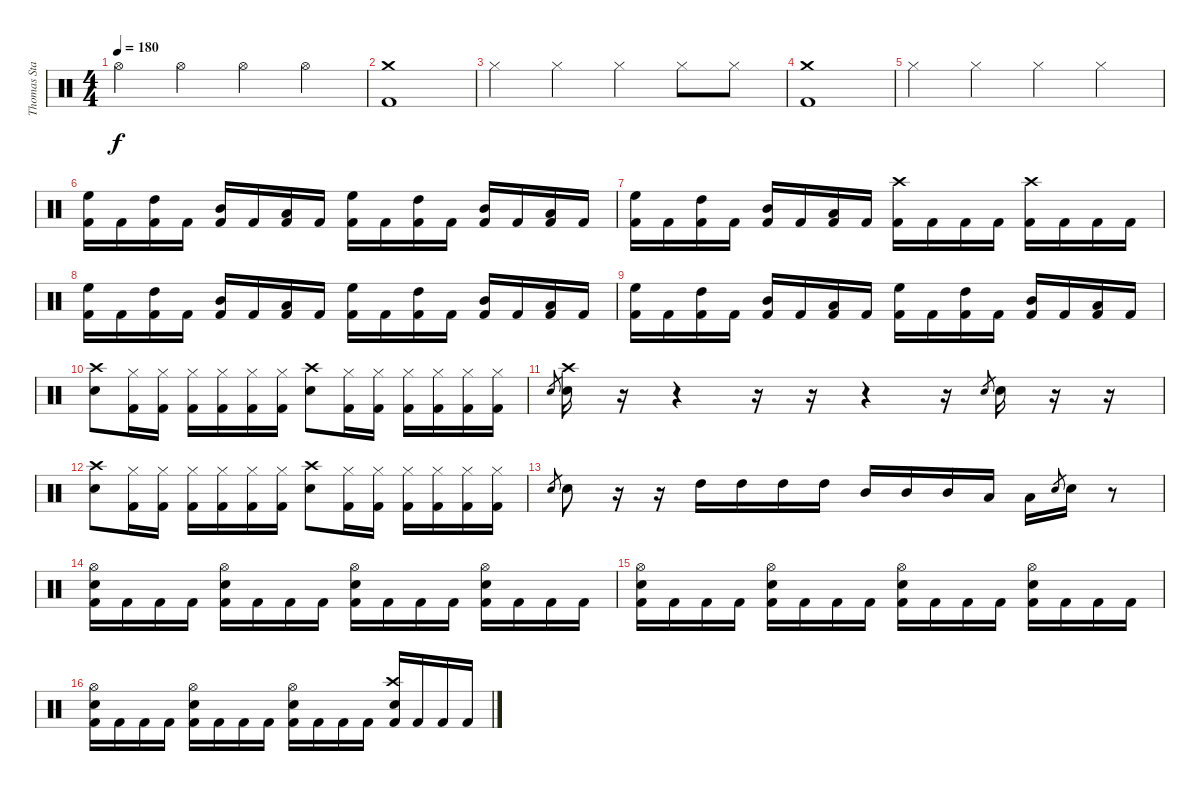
\track ("Thomas Stauch" "Thomas Sta") {instrument percussion}
\staff {score}
\articulation defaults
\ts (4 4)
\tempo 180
\clef neutral
\ks c "Hi-Hat (open)".4{dy f} "Hi-Hat (open)".4 "Hi-Hat (open)".4 "Hi-Hat (open)".4
|
("Crash medium (hit)" "Kick (hit) 2").1 |
"Hi-Hat (closed)".4 "Hi-Hat (closed)".4 "Hi-Hat (closed)".4 "Hi-Hat (closed)".8 "Hi-Hat (closed)".8 |
("Crash medium (hit)" "Kick (hit) 2").1 |
"Hi-Hat (closed)".4 "Hi-Hat (closed)".4 "Hi-Hat (closed)".4 "Hi-Hat (closed)".4 |
("High Floor Tom (hit)" "Kick (hit) 2").16 "Kick (hit) 2".16 ("High Tom (hit)" "Kick (hit) 2").16 "Kick (hit) 2".16 ("Mid Tom (hit)" "Kick (hit) 2").16 "Kick (hit) 2".16 ("Low Tom (hit)" "Kick (hit) 2").16 "Kick (hit) 2".16 ("High Floor Tom (hit)" "Kick (hit) 2").16 "Kick (hit) 2".16 ("High Tom (hit)" "Kick (hit) 2").16 "Kick (hit) 2".16 ("Mid Tom (hit)" "Kick (hit) 2").16 "Kick (hit) 2".16 ("Low Tom (hit)" "Kick (hit) 2").16 "Kick (hit) 2".16 |
("High Floor Tom (hit)" "Kick (hit) 2").16 "Kick (hit) 2".16 ("High Tom (hit)" "Kick (hit) 2").16 "Kick (hit) 2".16 ("Mid Tom (hit)" "Kick (hit) 2").16 "Kick (hit) 2".16 ("Low Tom (hit)" "Kick (hit) 2").16 "Kick (hit) 2".16 ("Crash high (hit)" "Kick (hit) 2").16 "Kick (hit) 2".16 "Kick (hit) 2".16 "Kick (hit) 2".16 ("Crash high (hit)" "Kick (hit) 2").16 "Kick (hit) 2".16 "Kick (hit) 2".16 "Kick (hit) 2".16 |
("High Floor Tom (hit)" "Kick (hit) 2").16 "Kick (hit) 2".16 ("High Tom (hit)" "Kick (hit) 2").16 "Kick (hit) 2".16 ("Mid Tom (hit)" "Kick (hit) 2").16 "Kick (hit) 2".16 ("Low Tom (hit)" "Kick (hit) 2").16 "Kick (hit) 2".16 ("High Floor Tom (hit)" "Kick (hit) 2").16 "Kick (hit) 2".16 ("High Tom (hit)" "Kick (hit) 2").16 "Kick (hit) 2".16 ("Mid Tom (hit)" "Kick (hit) 2").16 "Kick (hit) 2".16 ("Low Tom (hit)" "Kick (hit) 2").16 "Kick (hit) 2".16 |
("High Floor Tom (hit)" "Kick (hit) 2").16 "Kick (hit) 2".16 ("High Tom (hit)" "Kick (hit) 2").16 "Kick (hit) 2".16 ("Mid Tom (hit)" "Kick (hit) 2").16 "Kick (hit) 2".16 ("Low Tom (hit)" "Kick (hit) 2").16 "Kick (hit) 2".16 ("High Floor Tom (hit)" "Kick (hit) 2").16 "Kick (hit) 2".16 ("High Tom (hit)" "Kick (hit) 2").16 "Kick (hit) 2".16 ("Mid Tom (hit)" "Kick (hit) 2").16 "Kick (hit) 2".16 ("Low Tom (hit)" "Kick (hit) 2").16 "Kick (hit) 2".16 |
("Crash high (hit)" "Electric Snare (hit)").8 ("Hi-Hat (closed)" "Kick (hit) 2").16 ("Hi-Hat (closed)" "Kick (hit) 2").16 ("Hi-Hat (closed)" "Kick (hit) 2").16 ("Hi-Hat (closed)" "Kick (hit) 2").16 ("Hi-Hat (closed)" "Kick (hit) 2").16 ("Hi-Hat (closed)" "Kick (hit) 2").16 ("Crash high (hit)" "Electric Snare (hit)").8 ("Hi-Hat (closed)" "Kick (hit) 2").16 ("Hi-Hat (closed)" "Kick (hit) 2").16 ("Hi-Hat (closed)" "Kick (hit) 2").16 ("Hi-Hat (closed)" "Kick (hit) 2").16 ("Hi-Hat (closed)" "Kick (hit) 2").16 ("Hi-Hat (closed)" "Kick (hit) 2").16 |
"Electric Snare (hit)".8{gr} ("Crash high (hit)" "Electric Snare (hit)").16 r.16 r.4 r.16 r.16 r.4 r.16 "Electric Snare (hit)".8{gr} "Electric Snare (hit)".16 r.16 r.16 |
("Crash high (hit)" "Electric Snare (hit)").8 ("Hi-Hat (closed)" "Kick (hit) 2").16 ("Hi-Hat (closed)" "Kick (hit) 2").16 ("Hi-Hat (closed)" "Kick (hit) 2").16 ("Hi-Hat (closed)" "Kick (hit) 2").16 ("Hi-Hat (closed)" "Kick (hit) 2").16 ("Hi-Hat (closed)" "Kick (hit) 2").16 ("Crash high (hit)" "Electric Snare (hit)").8 ("Hi-Hat (closed)" "Kick (hit) 2").16 ("Hi-Hat (closed)" "Kick (hit) 2").16 ("Hi-Hat (closed)" "Kick (hit) 2").16 ("Hi-Hat (closed)" "Kick (hit) 2").16 ("Hi-Hat (closed)" "Kick (hit) 2").16 ("Hi-Hat (closed)" "Kick (hit) 2").16 |
"Electric Snare (hit)".8{gr} "Electric Snare (hit)".8 r.16 r.16 "High Tom (hit)".16 "High Tom (hit)".16 "High Tom (hit)".16 "High Tom (hit)".16 "Mid Tom (hit)".16 "Mid Tom (hit)".16 "Mid Tom (hit)".16 "Low Tom (hit)".16 "Low Tom (hit)".16 "Electric Snare (hit)".8{gr} "Electric Snare (hit)".16 r.8 |
("Hi-Hat (open)" "Electric Snare (hit)" "Kick (hit) 2").16 "Kick (hit) 2".16 "Kick (hit) 2".16 "Kick (hit) 2".16 ("Hi-Hat (open)" "Electric Snare (hit)" "Kick (hit) 2").16 "Kick (hit) 2".16 "Kick (hit) 2".16 "Kick (hit) 2".16 ("Hi-Hat (open)" "Electric Snare (hit)" "Kick (hit) 2").16 "Kick (hit) 2".16 "Kick (hit) 2".16 "Kick (hit) 2".16 ("Hi-Hat (open)" "Electric Snare (hit)" "Kick (hit) 2").16 "Kick (hit) 2".16 "Kick (hit) 2".16 "Kick (hit) 2".16 |
("Hi-Hat (open)" "Electric Snare (hit)" "Kick (hit) 2").16 "Kick (hit) 2".16 "Kick (hit) 2".16 "Kick (hit) 2".16 ("Hi-Hat (open)" "Electric Snare (hit)" "Kick (hit) 2").16 "Kick (hit) 2".16 "Kick (hit) 2".16 "Kick (hit) 2".16 ("Hi-Hat (open)" "Electric Snare (hit)" "Kick (hit) 2").16 "Kick (hit) 2".16 "Kick (hit) 2".16 "Kick (hit) 2".16 ("Hi-Hat (open)" "Electric Snare (hit)" "Kick (hit) 2").16 "Kick (hit) 2".16 "Kick (hit) 2".16 "Kick (hit) 2".16 |
("Hi-Hat (open)" "Electric Snare (hit)" "Kick (hit) 2").16 "Kick (hit) 2".16 "Kick (hit) 2".16 "Kick (hit) 2".16 ("Hi-Hat (open)" "Electric Snare (hit)" "Kick (hit) 2").16 "Kick (hit) 2".16 "Kick (hit) 2".16 "Kick (hit) 2".16 ("Hi-Hat (open)" "Electric Snare (hit)" "Kick (hit) 2").16 "Kick (hit) 2".16 "Kick (hit) 2".16 "Kick (hit) 2".16 ("Crash high (hit)" "Electric Snare (hit)" "Kick (hit) 2").16 "Kick (hit) 2".16 "Kick (hit) 2".16 "Kick (hit) 2".16
